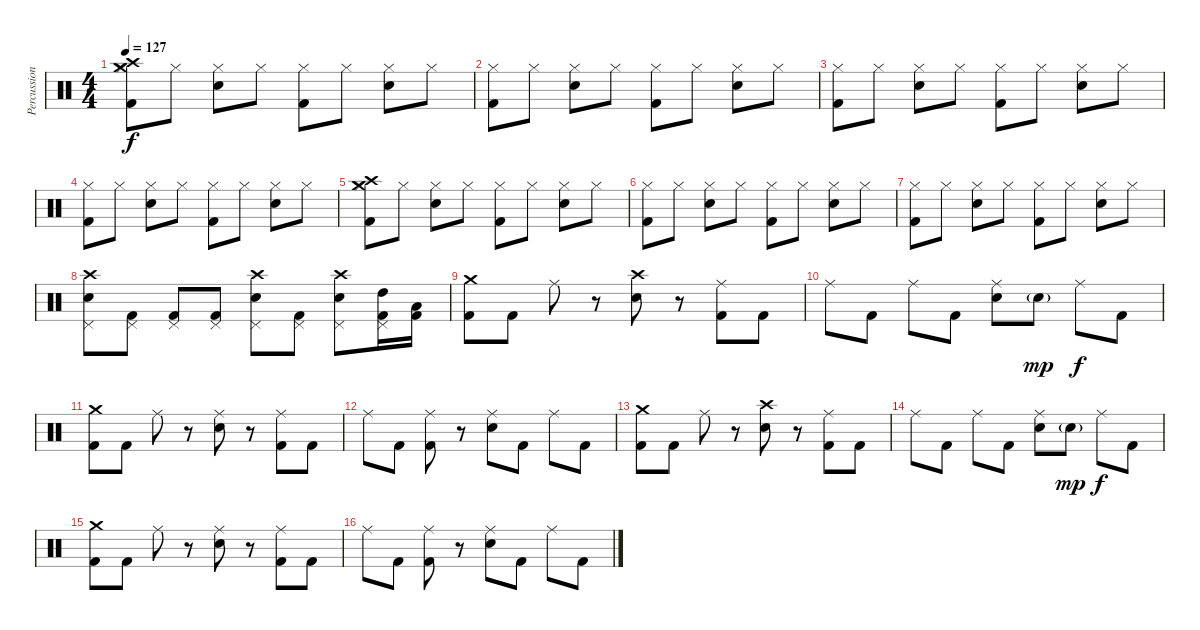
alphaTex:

\track ("Percussion" "Percussion") {instrument percussion}
\staff {score}
\articulation defaults
\ts (4 4)
\tempo 127
\clef neutral
\ks c
("Crash medium (hit)" "Crash high (hit)" "Hi-Hat (closed)" "Kick (hit) 2").8{dy f} "Hi-Hat (closed)".8 ("Hi-Hat (closed)" "Snare (hit) 2").8 "Hi-Hat (closed)".8 ("Hi-Hat (closed)" "Kick (hit) 2").8 "Hi-Hat (closed)".8 ("Hi-Hat (closed)" "Snare (hit) 2").8 "Hi-Hat (closed)".8 |
("Hi-Hat (closed)" "Kick (hit) 2").8 "Hi-Hat (closed)".8 ("Hi-Hat (closed)" "Snare (hit) 2").8 "Hi-Hat (closed)".8 ("Hi-Hat (closed)" "Kick (hit) 2").8 "Hi-Hat (closed)".8 ("Hi-Hat (closed)" "Snare (hit) 2").8 "Hi-Hat (closed)".8 |
("Hi-Hat (closed)" "Kick (hit) 2").8 "Hi-Hat (closed)".8 ("Hi-Hat (closed)" "Snare (hit) 2").8 "Hi-Hat (closed)".8 ("Hi-Hat (closed)" "Kick (hit) 2").8 "Hi-Hat (closed)".8 ("Hi-Hat (closed)" "Snare (hit) 2").8 "Hi-Hat (closed)".8 |
("Hi-Hat (closed)" "Kick (hit) 2").8 "Hi-Hat (closed)".8 ("Hi-Hat (closed)" "Snare (hit) 2").8 "Hi-Hat (closed)".8 ("Hi-Hat (closed)" "Kick (hit) 2").8 "Hi-Hat (closed)".8 ("Hi-Hat (closed)" "Snare (hit) 2").8 "Hi-Hat (closed)".8 |
("Crash medium (hit)" "Crash high (hit)" "Hi-Hat (closed)" "Kick (hit) 2").8 "Hi-Hat (closed)".8 ("Hi-Hat (closed)" "Snare (hit) 2").8 "Hi-Hat (closed)".8 ("Hi-Hat (closed)" "Kick (hit) 2").8 "Hi-Hat (closed)".8 ("Hi-Hat (closed)" "Snare (hit) 2").8 "Hi-Hat (closed)".8 |
("Hi-Hat (closed)" "Kick (hit) 2").8 "Hi-Hat (closed)".8 ("Hi-Hat (closed)" "Snare (hit) 2").8 "Hi-Hat (closed)".8 ("Hi-Hat (closed)" "Kick (hit) 2").8 "Hi-Hat (closed)".8 ("Hi-Hat (closed)" "Snare (hit) 2").8 "Hi-Hat (closed)".8 |
("Hi-Hat (closed)" "Kick (hit) 2").8 "Hi-Hat (closed)".8 ("Hi-Hat (closed)" "Snare (hit) 2").8 "Hi-Hat (closed)".8 ("Hi-Hat (closed)" "Kick (hit) 2").8 "Hi-Hat (closed)".8 ("Hi-Hat (closed)" "Snare (hit) 2").8 "Hi-Hat (closed)".8 |
("Crash high (hit)" "Pedal Hi-Hat (hit)" "Snare (hit) 2").8 ("Pedal Hi-Hat (hit)" "Kick (hit) 2").8 ("Pedal Hi-Hat (hit)" "Kick (hit) 2").8 ("Pedal Hi-Hat (hit)" "Kick (hit) 2").8 ("Crash high (hit)" "Pedal Hi-Hat (hit)" "Snare (hit) 2").8 ("Pedal Hi-Hat (hit)" "Kick (hit) 2").8 ("Crash high (hit)" "Pedal Hi-Hat (hit)" "Snare (hit) 2").8 ("Pedal Hi-Hat (hit)" "High Tom (hit)" "Kick (hit) 2").16 ("Low Tom (hit)" "Kick (hit) 2").16 |
("Crash medium (hit)" "Kick (hit) 2").8 "Kick (hit) 2".8 "Ride (middle)".8 r.8 ("Crash high (hit)" "Snare (hit) 2").8 r.8 ("Ride (middle)" "Kick (hit) 2").8 "Kick (hit) 2".8 |
"Ride (middle)".8 "Kick (hit) 2".8 "Ride (middle)".8 "Kick (hit) 2".8 ("Ride (middle)" "Snare (hit) 2").8 "Snare (hit) 2"{g}.8{dy mp} "Ride (middle)".8{dy f} "Kick (hit) 2".8 |
("Crash medium (hit)" "Kick (hit) 2").8 "Kick (hit) 2".8 "Ride (middle)".8 r.8 ("Ride (middle)" "Snare (hit) 2").8 r.8 ("Ride (middle)" "Kick (hit) 2").8 "Kick (hit) 2".8 |
"Ride (middle)".8 "Kick (hit) 2".8 ("Ride (middle)" "Kick (hit) 2").8 r.8 ("Ride (middle)" "Snare (hit) 2").8 "Kick (hit) 2".8 "Ride (middle)".8 "Kick (hit) 2".8 |
("Crash medium (hit)" "Kick (hit) 2").8 "Kick (hit) 2".8 "Ride (middle)".8 r.8 ("Crash high (hit)" "Snare (hit) 2").8 r.8 ("Ride (middle)" "Kick (hit) 2").8 "Kick (hit) 2".8 |
"Ride (middle)".8 "Kick (hit) 2".8 "Ride (middle)".8 "Kick (hit) 2".8 ("Ride (middle)" "Snare (hit) 2").8 "Snare (hit) 2"{g}.8{dy mp} "Ride (middle)".8{dy f} "Kick (hit) 2".8 |
("Crash medium (hit)" "Kick (hit) 2").8 "Kick (hit) 2".8 "Ride (middle)".8 r.8 ("Ride (middle)" "Snare (hit) 2").8 r.8 ("Ride (middle)" "Kick (hit) 2").8 "Kick (hit) 2".8 |
"Ride (middle)".8 "Kick (hit) 2".8 ("Ride (middle)" "Kick (hit) 2").8 r.8 ("Ride (middle)" "Snare (hit) 2").8 "Kick (hit) 2".8 "Ride (middle)".8 "Kick (hit) 2".8
